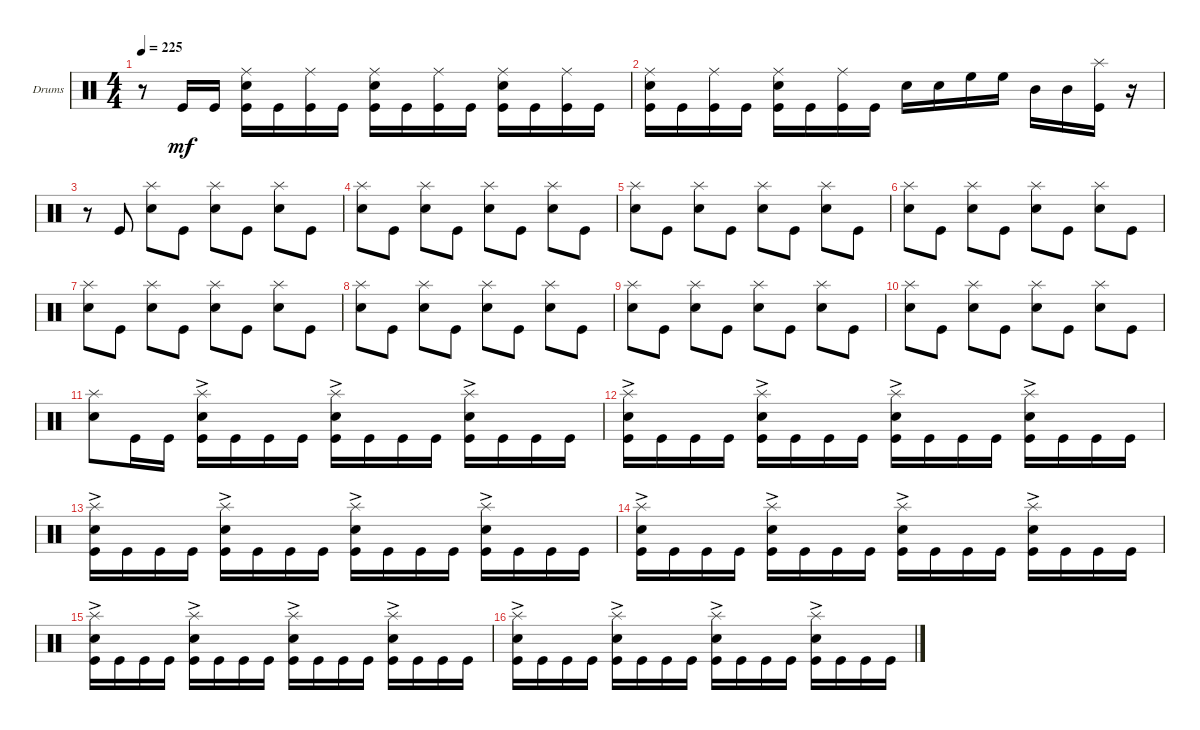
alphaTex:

\bracketExtendMode groupsimilarinstruments
\firstSystemTrackNameOrientation horizontal
\otherSystemsTrackNameOrientation horizontal
\track ("Drumkit" "Drums") {instrument percussion}
\staff {score}
\articulation defaults
\ts (4 4)
\tempo 225
\clef neutral
\ks c
r.8{dy mf} "Kick (hit)".16 "Kick (hit)".16 ("Snare (hit) 2" "Kick (hit)" "Ride (middle)").16 "Kick (hit)".16 ("Kick (hit)" "Ride (middle)").16 "Kick (hit)".16 ("Snare (hit) 2" "Kick (hit)" "Ride (middle)").16 "Kick (hit)".16 ("Kick (hit)" "Ride (middle)").16 "Kick (hit)".16 ("Snare (hit) 2" "Kick (hit)" "Ride (middle)").16 "Kick (hit)".16 ("Kick (hit)" "Ride (middle)").16 "Kick (hit)".16 |
("Snare (hit) 2" "Kick (hit)" "Ride (middle)").16 "Kick (hit)".16 ("Kick (hit)" "Ride (middle)").16 "Kick (hit)".16 ("Snare (hit) 2" "Kick (hit)" "Ride (middle)").16 "Kick (hit)".16 ("Kick (hit)" "Ride (middle)").16 "Kick (hit)".16 "Snare (hit) 2".16 "Snare (hit) 2".16 "High Floor Tom (hit)".16 "High Floor Tom (hit)".16 "Mid Tom (hit)".16 "Mid Tom (hit)".16 ("Kick (hit)" "Splash (hit)").16 r.16 |
r.8 "Kick (hit)".8 ("Snare (hit) 2" "Splash (hit)").8 "Kick (hit)".8 ("Snare (hit) 2" "Splash (hit)").8 "Kick (hit)".8 ("Snare (hit) 2" "Splash (hit)").8 "Kick (hit)".8 |
("Snare (hit) 2" "Splash (hit)").8 "Kick (hit)".8 ("Snare (hit) 2" "Splash (hit)").8 "Kick (hit)".8 ("Snare (hit) 2" "Splash (hit)").8 "Kick (hit)".8 ("Snare (hit) 2" "Splash (hit)").8 "Kick (hit)".8 |
("Snare (hit) 2" "Splash (hit)").8 "Kick (hit)".8 ("Snare (hit) 2" "Splash (hit)").8 "Kick (hit)".8 ("Snare (hit) 2" "Splash (hit)").8 "Kick (hit)".8 ("Snare (hit) 2" "Splash (hit)").8 "Kick (hit)".8 |
("Snare (hit) 2" "Splash (hit)").8 "Kick (hit)".8 ("Snare (hit) 2" "Splash (hit)").8 "Kick (hit)".8 ("Snare (hit) 2" "Splash (hit)").8 "Kick (hit)".8 ("Snare (hit) 2" "Splash (hit)").8 "Kick (hit)".8 |
("Snare (hit) 2" "Splash (hit)").8 "Kick (hit)".8 ("Snare (hit) 2" "Splash (hit)").8 "Kick (hit)".8 ("Snare (hit) 2" "Splash (hit)").8 "Kick (hit)".8 ("Snare (hit) 2" "Splash (hit)").8 "Kick (hit)".8 |
("Snare (hit) 2" "Splash (hit)").8 "Kick (hit)".8 ("Snare (hit) 2" "Splash (hit)").8 "Kick (hit)".8 ("Snare (hit) 2" "Splash (hit)").8 "Kick (hit)".8 ("Snare (hit) 2" "Splash (hit)").8 "Kick (hit)".8 |
("Snare (hit) 2" "Splash (hit)").8 "Kick (hit)".8 ("Snare (hit) 2" "Splash (hit)").8 "Kick (hit)".8 ("Snare (hit) 2" "Splash (hit)").8 "Kick (hit)".8 ("Snare (hit) 2" "Splash (hit)").8 "Kick (hit)".8 |
("Snare (hit) 2" "Splash (hit)").8 "Kick (hit)".8 ("Snare (hit) 2" "Splash (hit)").8 "Kick (hit)".8 ("Snare (hit) 2" "Splash (hit)").8 "Kick (hit)".8 ("Snare (hit) 2" "Splash (hit)").8 "Kick (hit)".8 |
("Snare (hit) 2" "Splash (hit)").8 "Kick (hit)".16 "Kick (hit)".16 ("Snare (hit) 2"{ac} "Splash (hit)" "Kick (hit)").16 "Kick (hit)".16 "Kick (hit)".16 "Kick (hit)".16 ("Snare (hit) 2"{ac} "Splash (hit)" "Kick (hit)").16 "Kick (hit)".16 "Kick (hit)".16 "Kick (hit)".16 ("Snare (hit) 2"{ac} "Splash (hit)" "Kick (hit)").16 "Kick (hit)".16 "Kick (hit)".16 "Kick (hit)".16 |
("Snare (hit) 2"{ac} "Splash (hit)" "Kick (hit)").16 "Kick (hit)".16 "Kick (hit)".16 "Kick (hit)".16 ("Snare (hit) 2"{ac} "Splash (hit)" "Kick (hit)").16 "Kick (hit)".16 "Kick (hit)".16 "Kick (hit)".16 ("Snare (hit) 2"{ac} "Splash (hit)" "Kick (hit)").16 "Kick (hit)".16 "Kick (hit)".16 "Kick (hit)".16 ("Snare (hit) 2"{ac} "Splash (hit)" "Kick (hit)").16 "Kick (hit)".16 "Kick (hit)".16 "Kick (hit)".16 |
("Snare (hit) 2"{ac} "Splash (hit)" "Kick (hit)").16 "Kick (hit)".16 "Kick (hit)".16 "Kick (hit)".16 ("Snare (hit) 2"{ac} "Splash (hit)" "Kick (hit)").16 "Kick (hit)".16 "Kick (hit)".16 "Kick (hit)".16 ("Snare (hit) 2"{ac} "Splash (hit)" "Kick (hit)").16 "Kick (hit)".16 "Kick (hit)".16 "Kick (hit)".16 ("Snare (hit) 2"{ac} "Splash (hit)" "Kick (hit)").16 "Kick (hit)".16 "Kick (hit)".16 "Kick (hit)".16 |
("Snare (hit) 2"{ac} "Splash (hit)" "Kick (hit)").16 "Kick (hit)".16 "Kick (hit)".16 "Kick (hit)".16 ("Snare (hit) 2"{ac} "Splash (hit)" "Kick (hit)").16 "Kick (hit)".16 "Kick (hit)".16 "Kick (hit)".16 ("Snare (hit) 2"{ac} "Splash (hit)" "Kick (hit)").16 "Kick (hit)".16 "Kick (hit)".16 "Kick (hit)".16 ("Snare (hit) 2"{ac} "Splash (hit)" "Kick (hit)").16 "Kick (hit)".16 "Kick (hit)".16 "Kick (hit)".16 |
("Snare (hit) 2"{ac} "Splash (hit)" "Kick (hit)").16 "Kick (hit)".16 "Kick (hit)".16 "Kick (hit)".16 ("Snare (hit) 2"{ac} "Splash (hit)" "Kick (hit)").16 "Kick (hit)".16 "Kick (hit)".16 "Kick (hit)".16 ("Snare (hit) 2"{ac} "Splash (hit)" "Kick (hit)").16 "Kick (hit)".16 "Kick (hit)".16 "Kick (hit)".16 ("Snare (hit) 2"{ac} "Splash (hit)" "Kick (hit)").16 "Kick (hit)".16 "Kick (hit)".16 "Kick (hit)".16 |
("Snare (hit) 2"{ac} "Splash (hit)" "Kick (hit)").16 "Kick (hit)".16 "Kick (hit)".16 "Kick (hit)".16 ("Snare (hit) 2"{ac} "Splash (hit)" "Kick (hit)").16 "Kick (hit)".16 "Kick (hit)".16 "Kick (hit)".16 ("Snare (hit) 2"{ac} "Splash (hit)" "Kick (hit)").16 "Kick (hit)".16 "Kick (hit)".16 "Kick (hit)".16 ("Snare (hit) 2"{ac} "Splash (hit)" "Kick (hit)").16 "Kick (hit)".16 "Kick (hit)".16 "Kick (hit)".16
